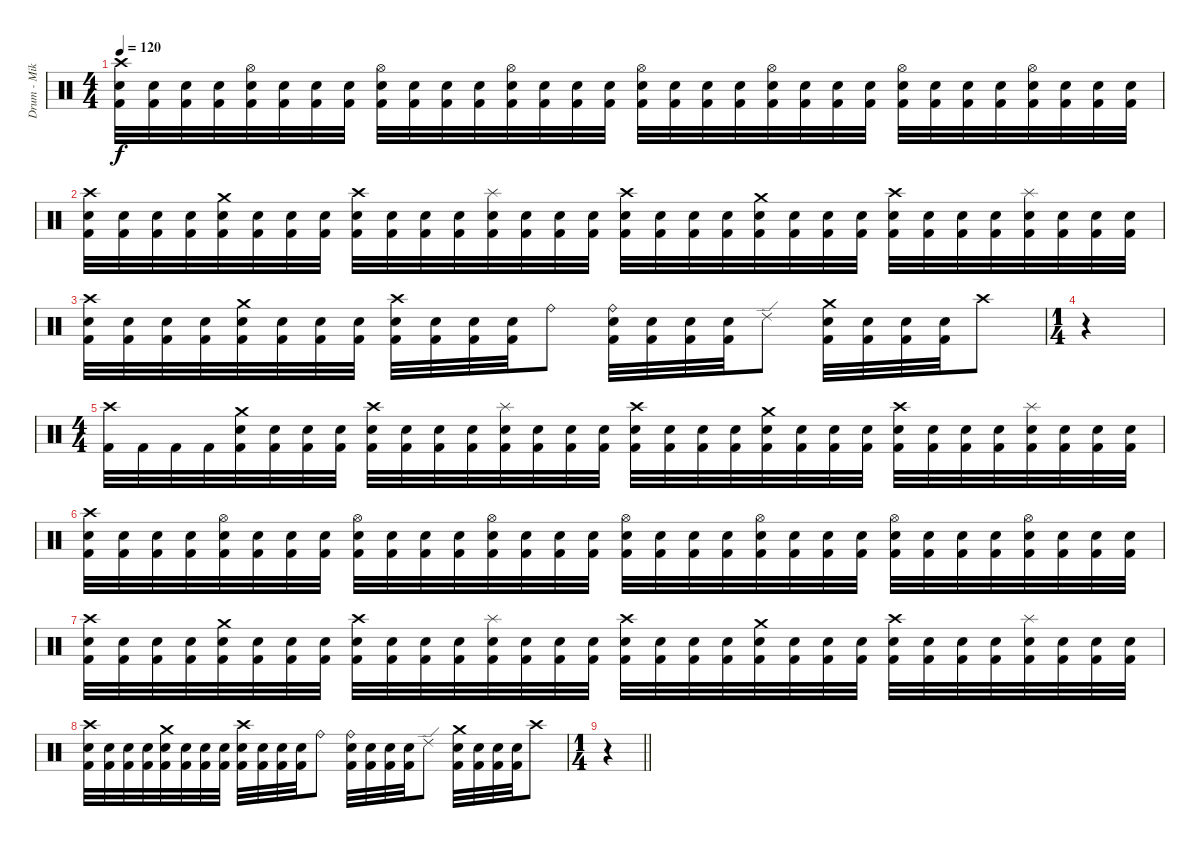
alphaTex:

\track ("Drum - Mike Collins" "Drum - Mik") {instrument percussion}
\staff {score}
\articulation defaults
\ts (4 4)
\tempo 120
\clef neutral
\ks c
("Crash high (hit)" "Electric Snare (hit)" "Kick (hit) 2").32{dy f} ("Electric Snare (hit)" "Kick (hit) 2").32 ("Electric Snare (hit)" "Kick (hit) 2").32 ("Electric Snare (hit)" "Kick (hit) 2").32 ("Hi-Hat (open)" "Electric Snare (hit)" "Kick (hit) 2").32 ("Electric Snare (hit)" "Kick (hit) 2").32 ("Electric Snare (hit)" "Kick (hit) 2").32 ("Electric Snare (hit)" "Kick (hit) 2").32 ("Hi-Hat (open)" "Electric Snare (hit)" "Kick (hit) 2").32 ("Electric Snare (hit)" "Kick (hit) 2").32 ("Electric Snare (hit)" "Kick (hit) 2").32 ("Electric Snare (hit)" "Kick (hit) 2").32 ("Hi-Hat (open)" "Electric Snare (hit)" "Kick (hit) 2").32 ("Electric Snare (hit)" "Kick (hit) 2").32 ("Electric Snare (hit)" "Kick (hit) 2").32 ("Electric Snare (hit)" "Kick (hit) 2").32 ("Hi-Hat (open)" "Electric Snare (hit)" "Kick (hit) 2").32 ("Electric Snare (hit)" "Kick (hit) 2").32 ("Electric Snare (hit)" "Kick (hit) 2").32 ("Electric Snare (hit)" "Kick (hit) 2").32 ("Hi-Hat (open)" "Electric Snare (hit)" "Kick (hit) 2").32 ("Electric Snare (hit)" "Kick (hit) 2").32 ("Electric Snare (hit)" "Kick (hit) 2").32 ("Electric Snare (hit)" "Kick (hit) 2").32 ("Hi-Hat (open)" "Electric Snare (hit)" "Kick (hit) 2").32 ("Electric Snare (hit)" "Kick (hit) 2").32 ("Electric Snare (hit)" "Kick (hit) 2").32 ("Electric Snare (hit)" "Kick (hit) 2").32 ("Hi-Hat (open)" "Electric Snare (hit)" "Kick (hit) 2").32 ("Electric Snare (hit)" "Kick (hit) 2").32 ("Electric Snare (hit)" "Kick (hit) 2").32 ("Electric Snare (hit)" "Kick (hit) 2").32 |
("Crash high (hit)" "Electric Snare (hit)" "Kick (hit) 2").32 ("Electric Snare (hit)" "Kick (hit) 2").32 ("Electric Snare (hit)" "Kick (hit) 2").32 ("Electric Snare (hit)" "Kick (hit) 2").32 ("Crash medium (hit)" "Electric Snare (hit)" "Kick (hit) 2").32 ("Electric Snare (hit)" "Kick (hit) 2").32 ("Electric Snare (hit)" "Kick (hit) 2").32 ("Electric Snare (hit)" "Kick (hit) 2").32 ("Crash high (hit)" "Electric Snare (hit)" "Kick (hit) 2").32 ("Electric Snare (hit)" "Kick (hit) 2").32 ("Electric Snare (hit)" "Kick (hit) 2").32 ("Electric Snare (hit)" "Kick (hit) 2").32 ("Splash (hit)" "Electric Snare (hit)" "Kick (hit) 2").32 ("Electric Snare (hit)" "Kick (hit) 2").32 ("Electric Snare (hit)" "Kick (hit) 2").32 ("Electric Snare (hit)" "Kick (hit) 2").32 ("Crash high (hit)" "Electric Snare (hit)" "Kick (hit) 2").32 ("Electric Snare (hit)" "Kick (hit) 2").32 ("Electric Snare (hit)" "Kick (hit) 2").32 ("Electric Snare (hit)" "Kick (hit) 2").32 ("Crash medium (hit)" "Electric Snare (hit)" "Kick (hit) 2").32 ("Electric Snare (hit)" "Kick (hit) 2").32 ("Electric Snare (hit)" "Kick (hit) 2").32 ("Electric Snare (hit)" "Kick (hit) 2").32 ("Crash high (hit)" "Electric Snare (hit)" "Kick (hit) 2").32 ("Electric Snare (hit)" "Kick (hit) 2").32 ("Electric Snare (hit)" "Kick (hit) 2").32 ("Electric Snare (hit)" "Kick (hit) 2").32 ("Splash (hit)" "Electric Snare (hit)" "Kick (hit) 2").32 ("Electric Snare (hit)" "Kick (hit) 2").32 ("Electric Snare (hit)" "Kick (hit) 2").32 ("Electric Snare (hit)" "Kick (hit) 2").32 |
("Crash high (hit)" "Electric Snare (hit)" "Kick (hit) 2").32 ("Electric Snare (hit)" "Kick (hit) 2").32 ("Electric Snare (hit)" "Kick (hit) 2").32 ("Electric Snare (hit)" "Kick (hit) 2").32 ("Crash medium (hit)" "Electric Snare (hit)" "Kick (hit) 2").32 ("Electric Snare (hit)" "Kick (hit) 2").32 ("Electric Snare (hit)" "Kick (hit) 2").32 ("Electric Snare (hit)" "Kick (hit) 2").32 ("Crash high (hit)" "Electric Snare (hit)" "Kick (hit) 2").32 ("Electric Snare (hit)" "Kick (hit) 2").32 ("Electric Snare (hit)" "Kick (hit) 2").32 ("Electric Snare (hit)" "Kick (hit) 2").32 "Ride (bell)".8 ("Ride (bell)" "Electric Snare (hit)" "Kick (hit) 2").32 ("Electric Snare (hit)" "Kick (hit) 2").32 ("Electric Snare (hit)" "Kick (hit) 2").32 ("Electric Snare (hit)" "Kick (hit) 2").32 "Ride (edge) 2".8 ("Crash medium (hit)" "Electric Snare (hit)" "Kick (hit) 2").32 ("Electric Snare (hit)" "Kick (hit) 2").32 ("Electric Snare (hit)" "Kick (hit) 2").32 ("Electric Snare (hit)" "Kick (hit) 2").32 "Crash high (hit)".8 |
\ts (1 4)
r.4 |
\ts (4 4)
("Crash high (hit)" "Kick (hit) 2").32 "Kick (hit) 2".32 "Kick (hit) 2".32 "Kick (hit) 2".32 ("Crash medium (hit)" "Electric Snare (hit)" "Kick (hit) 2").32 ("Electric Snare (hit)" "Kick (hit) 2").32 ("Electric Snare (hit)" "Kick (hit) 2").32 ("Electric Snare (hit)" "Kick (hit) 2").32 ("Crash high (hit)" "Electric Snare (hit)" "Kick (hit) 2").32 ("Electric Snare (hit)" "Kick (hit) 2").32 ("Electric Snare (hit)" "Kick (hit) 2").32 ("Electric Snare (hit)" "Kick (hit) 2").32 ("Splash (hit)" "Electric Snare (hit)" "Kick (hit) 2").32 ("Electric Snare (hit)" "Kick (hit) 2").32 ("Electric Snare (hit)" "Kick (hit) 2").32 ("Electric Snare (hit)" "Kick (hit) 2").32 ("Crash high (hit)" "Electric Snare (hit)" "Kick (hit) 2").32 ("Electric Snare (hit)" "Kick (hit) 2").32 ("Electric Snare (hit)" "Kick (hit) 2").32 ("Electric Snare (hit)" "Kick (hit) 2").32 ("Crash medium (hit)" "Electric Snare (hit)" "Kick (hit) 2").32 ("Electric Snare (hit)" "Kick (hit) 2").32 ("Electric Snare (hit)" "Kick (hit) 2").32 ("Electric Snare (hit)" "Kick (hit) 2").32 ("Crash high (hit)" "Electric Snare (hit)" "Kick (hit) 2").32 ("Electric Snare (hit)" "Kick (hit) 2").32 ("Electric Snare (hit)" "Kick (hit) 2").32 ("Electric Snare (hit)" "Kick (hit) 2").32 ("Splash (hit)" "Electric Snare (hit)" "Kick (hit) 2").32 ("Electric Snare (hit)" "Kick (hit) 2").32 ("Electric Snare (hit)" "Kick (hit) 2").32 ("Electric Snare (hit)" "Kick (hit) 2").32 |
("Crash high (hit)" "Electric Snare (hit)" "Kick (hit) 2").32 ("Electric Snare (hit)" "Kick (hit) 2").32 ("Electric Snare (hit)" "Kick (hit) 2").32 ("Electric Snare (hit)" "Kick (hit) 2").32 ("Hi-Hat (open)" "Electric Snare (hit)" "Kick (hit) 2").32 ("Electric Snare (hit)" "Kick (hit) 2").32 ("Electric Snare (hit)" "Kick (hit) 2").32 ("Electric Snare (hit)" "Kick (hit) 2").32 ("Hi-Hat (open)" "Electric Snare (hit)" "Kick (hit) 2").32 ("Electric Snare (hit)" "Kick (hit) 2").32 ("Electric Snare (hit)" "Kick (hit) 2").32 ("Electric Snare (hit)" "Kick (hit) 2").32 ("Hi-Hat (open)" "Electric Snare (hit)" "Kick (hit) 2").32 ("Electric Snare (hit)" "Kick (hit) 2").32 ("Electric Snare (hit)" "Kick (hit) 2").32 ("Electric Snare (hit)" "Kick (hit) 2").32 ("Hi-Hat (open)" "Electric Snare (hit)" "Kick (hit) 2").32 ("Electric Snare (hit)" "Kick (hit) 2").32 ("Electric Snare (hit)" "Kick (hit) 2").32 ("Electric Snare (hit)" "Kick (hit) 2").32 ("Hi-Hat (open)" "Electric Snare (hit)" "Kick (hit) 2").32 ("Electric Snare (hit)" "Kick (hit) 2").32 ("Electric Snare (hit)" "Kick (hit) 2").32 ("Electric Snare (hit)" "Kick (hit) 2").32 ("Hi-Hat (open)" "Electric Snare (hit)" "Kick (hit) 2").32 ("Electric Snare (hit)" "Kick (hit) 2").32 ("Electric Snare (hit)" "Kick (hit) 2").32 ("Electric Snare (hit)" "Kick (hit) 2").32 ("Hi-Hat (open)" "Electric Snare (hit)" "Kick (hit) 2").32 ("Electric Snare (hit)" "Kick (hit) 2").32 ("Electric Snare (hit)" "Kick (hit) 2").32 ("Electric Snare (hit)" "Kick (hit) 2").32 |
("Crash high (hit)" "Electric Snare (hit)" "Kick (hit) 2").32 ("Electric Snare (hit)" "Kick (hit) 2").32 ("Electric Snare (hit)" "Kick (hit) 2").32 ("Electric Snare (hit)" "Kick (hit) 2").32 ("Crash medium (hit)" "Electric Snare (hit)" "Kick (hit) 2").32 ("Electric Snare (hit)" "Kick (hit) 2").32 ("Electric Snare (hit)" "Kick (hit) 2").32 ("Electric Snare (hit)" "Kick (hit) 2").32 ("Crash high (hit)" "Electric Snare (hit)" "Kick (hit) 2").32 ("Electric Snare (hit)" "Kick (hit) 2").32 ("Electric Snare (hit)" "Kick (hit) 2").32 ("Electric Snare (hit)" "Kick (hit) 2").32 ("Splash (hit)" "Electric Snare (hit)" "Kick (hit) 2").32 ("Electric Snare (hit)" "Kick (hit) 2").32 ("Electric Snare (hit)" "Kick (hit) 2").32 ("Electric Snare (hit)" "Kick (hit) 2").32 ("Crash high (hit)" "Electric Snare (hit)" "Kick (hit) 2").32 ("Electric Snare (hit)" "Kick (hit) 2").32 ("Electric Snare (hit)" "Kick (hit) 2").32 ("Electric Snare (hit)" "Kick (hit) 2").32 ("Crash medium (hit)" "Electric Snare (hit)" "Kick (hit) 2").32 ("Electric Snare (hit)" "Kick (hit) 2").32 ("Electric Snare (hit)" "Kick (hit) 2").32 ("Electric Snare (hit)" "Kick (hit) 2").32 ("Crash high (hit)" "Electric Snare (hit)" "Kick (hit) 2").32 ("Electric Snare (hit)" "Kick (hit) 2").32 ("Electric Snare (hit)" "Kick (hit) 2").32 ("Electric Snare (hit)" "Kick (hit) 2").32 ("Splash (hit)" "Electric Snare (hit)" "Kick (hit) 2").32 ("Electric Snare (hit)" "Kick (hit) 2").32 ("Electric Snare (hit)" "Kick (hit) 2").32 ("Electric Snare (hit)" "Kick (hit) 2").32 |
("Crash high (hit)" "Electric Snare (hit)" "Kick (hit) 2").32 ("Electric Snare (hit)" "Kick (hit) 2").32 ("Electric Snare (hit)" "Kick (hit) 2").32 ("Electric Snare (hit)" "Kick (hit) 2").32 ("Crash medium (hit)" "Electric Snare (hit)" "Kick (hit) 2").32 ("Electric Snare (hit)" "Kick (hit) 2").32 ("Electric Snare (hit)" "Kick (hit) 2").32 ("Electric Snare (hit)" "Kick (hit) 2").32 ("Crash high (hit)" "Electric Snare (hit)" "Kick (hit) 2").32 ("Electric Snare (hit)" "Kick (hit) 2").32 ("Electric Snare (hit)" "Kick (hit) 2").32 ("Electric Snare (hit)" "Kick (hit) 2").32 "Ride (bell)".8 ("Ride (bell)" "Electric Snare (hit)" "Kick (hit) 2").32 ("Electric Snare (hit)" "Kick (hit) 2").32 ("Electric Snare (hit)" "Kick (hit) 2").32 ("Electric Snare (hit)" "Kick (hit) 2").32 "Ride (edge) 2".8 ("Crash medium (hit)" "Electric Snare (hit)" "Kick (hit) 2").32 ("Electric Snare (hit)" "Kick (hit) 2").32 ("Electric Snare (hit)" "Kick (hit) 2").32 ("Electric Snare (hit)" "Kick (hit) 2").32 "Crash high (hit)".8 |
\ts (1 4)
\barLineRight lightlight
r.4
